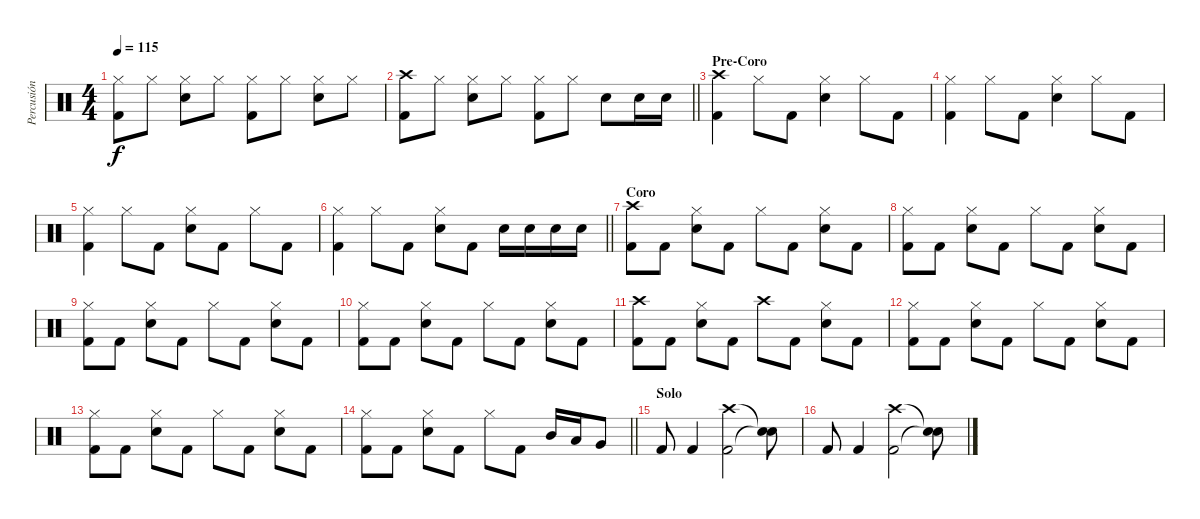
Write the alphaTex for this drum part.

\track ("Percusión" "Percusión") {instrument percussion}
\staff {score}
\articulation defaults
\ts (4 4)
\tempo 115
\clef neutral
\ks c
("Hi-Hat (closed)" "Kick (hit) 2").8{dy f} "Hi-Hat (closed)".8 ("Hi-Hat (closed)" "Snare (hit) 2").8 "Hi-Hat (closed)".8 ("Hi-Hat (closed)" "Kick (hit) 2").8 "Hi-Hat (closed)".8 ("Hi-Hat (closed)" "Snare (hit) 2").8 "Hi-Hat (closed)".8 |
\barLineRight lightlight
("Crash high (hit)" "Kick (hit) 2").8 "Hi-Hat (closed)".8 ("Hi-Hat (closed)" "Snare (hit) 2").8 "Hi-Hat (closed)".8 ("Hi-Hat (closed)" "Kick (hit) 2").8 "Hi-Hat (closed)".8 "Snare (hit) 2".8 "Snare (hit) 2".16 "Snare (hit) 2".16 |
\section ("" "Pre-Coro")
("Crash high (hit)" "Kick (hit) 2").4 "Hi-Hat (closed)".8 "Kick (hit) 2".8 ("Hi-Hat (closed)" "Snare (hit) 2").4 "Hi-Hat (closed)".8 "Kick (hit) 2".8 |
("Hi-Hat (closed)" "Kick (hit) 2").4 "Hi-Hat (closed)".8 "Kick (hit) 2".8 ("Hi-Hat (closed)" "Snare (hit) 2").4 "Hi-Hat (closed)".8 "Kick (hit) 2".8 |
("Hi-Hat (closed)" "Kick (hit) 2").4 "Hi-Hat (closed)".8 "Kick (hit) 2".8 ("Hi-Hat (closed)" "Snare (hit) 2").8 "Kick (hit) 2".8 "Hi-Hat (closed)".8 "Kick (hit) 2".8 |
\barLineRight lightlight
("Hi-Hat (closed)" "Kick (hit) 2").4 "Hi-Hat (closed)".8 "Kick (hit) 2".8 ("Hi-Hat (closed)" "Snare (hit) 2").8 "Kick (hit) 2".8 "Snare (hit) 2".16 "Snare (hit) 2".16 "Snare (hit) 2".16 "Snare (hit) 2".16 |
\section ("" "Coro")
("Crash high (hit)" "Kick (hit) 2").8 "Kick (hit) 2".8 ("Hi-Hat (closed)" "Snare (hit) 2").8 "Kick (hit) 2".8 "Hi-Hat (closed)".8 "Kick (hit) 2".8 ("Hi-Hat (closed)" "Snare (hit) 2").8 "Kick (hit) 2".8 |
("Hi-Hat (closed)" "Kick (hit) 2").8 "Kick (hit) 2".8 ("Hi-Hat (closed)" "Snare (hit) 2").8 "Kick (hit) 2".8 "Hi-Hat (closed)".8 "Kick (hit) 2".8 ("Hi-Hat (closed)" "Snare (hit) 2").8 "Kick (hit) 2".8 |
("Hi-Hat (closed)" "Kick (hit) 2").8 "Kick (hit) 2".8 ("Hi-Hat (closed)" "Snare (hit) 2").8 "Kick (hit) 2".8 "Hi-Hat (closed)".8 "Kick (hit) 2".8 ("Hi-Hat (closed)" "Snare (hit) 2").8 "Kick (hit) 2".8 |
("Hi-Hat (closed)" "Kick (hit) 2").8 "Kick (hit) 2".8 ("Hi-Hat (closed)" "Snare (hit) 2").8 "Kick (hit) 2".8 "Hi-Hat (closed)".8 "Kick (hit) 2".8 ("Hi-Hat (closed)" "Snare (hit) 2").8 "Kick (hit) 2".8 |
("Crash high (hit)" "Kick (hit) 2").8 "Kick (hit) 2".8 ("Hi-Hat (closed)" "Snare (hit) 2").8 "Kick (hit) 2".8 "Crash high (hit)".8 "Kick (hit) 2".8 ("Hi-Hat (closed)" "Snare (hit) 2").8 "Kick (hit) 2".8 |
("Hi-Hat (closed)" "Kick (hit) 2").8 "Kick (hit) 2".8 ("Hi-Hat (closed)" "Snare (hit) 2").8 "Kick (hit) 2".8 "Hi-Hat (closed)".8 "Kick (hit) 2".8 ("Hi-Hat (closed)" "Snare (hit) 2").8 "Kick (hit) 2".8 |
("Hi-Hat (closed)" "Kick (hit) 2").8 "Kick (hit) 2".8 ("Hi-Hat (closed)" "Snare (hit) 2").8 "Kick (hit) 2".8 "Hi-Hat (closed)".8 "Kick (hit) 2".8 ("Hi-Hat (closed)" "Snare (hit) 2").8 "Kick (hit) 2".8 |
\barLineRight lightlight
("Hi-Hat (closed)" "Kick (hit) 2").8 "Kick (hit) 2".8 ("Hi-Hat (closed)" "Snare (hit) 2").8 "Kick (hit) 2".8 "Hi-Hat (closed)".8 "Kick (hit) 2".8 "Mid Tom (hit)".16 "Low Tom (hit)".16 "Very Low Tom (hit)".8 |
\section ("" "Solo")
"Kick (hit) 2".8 "Kick (hit) 2".4 ("Crash high (hit)" "Kick (hit) 2").2 ("Snare (hit)"{t} "Snare (hit)"{t}).8 |
"Kick (hit) 2".8 "Kick (hit) 2".4 ("Crash high (hit)" "Kick (hit) 2").2 ("Snare (hit)"{t} "Snare (hit)"{t}).8
